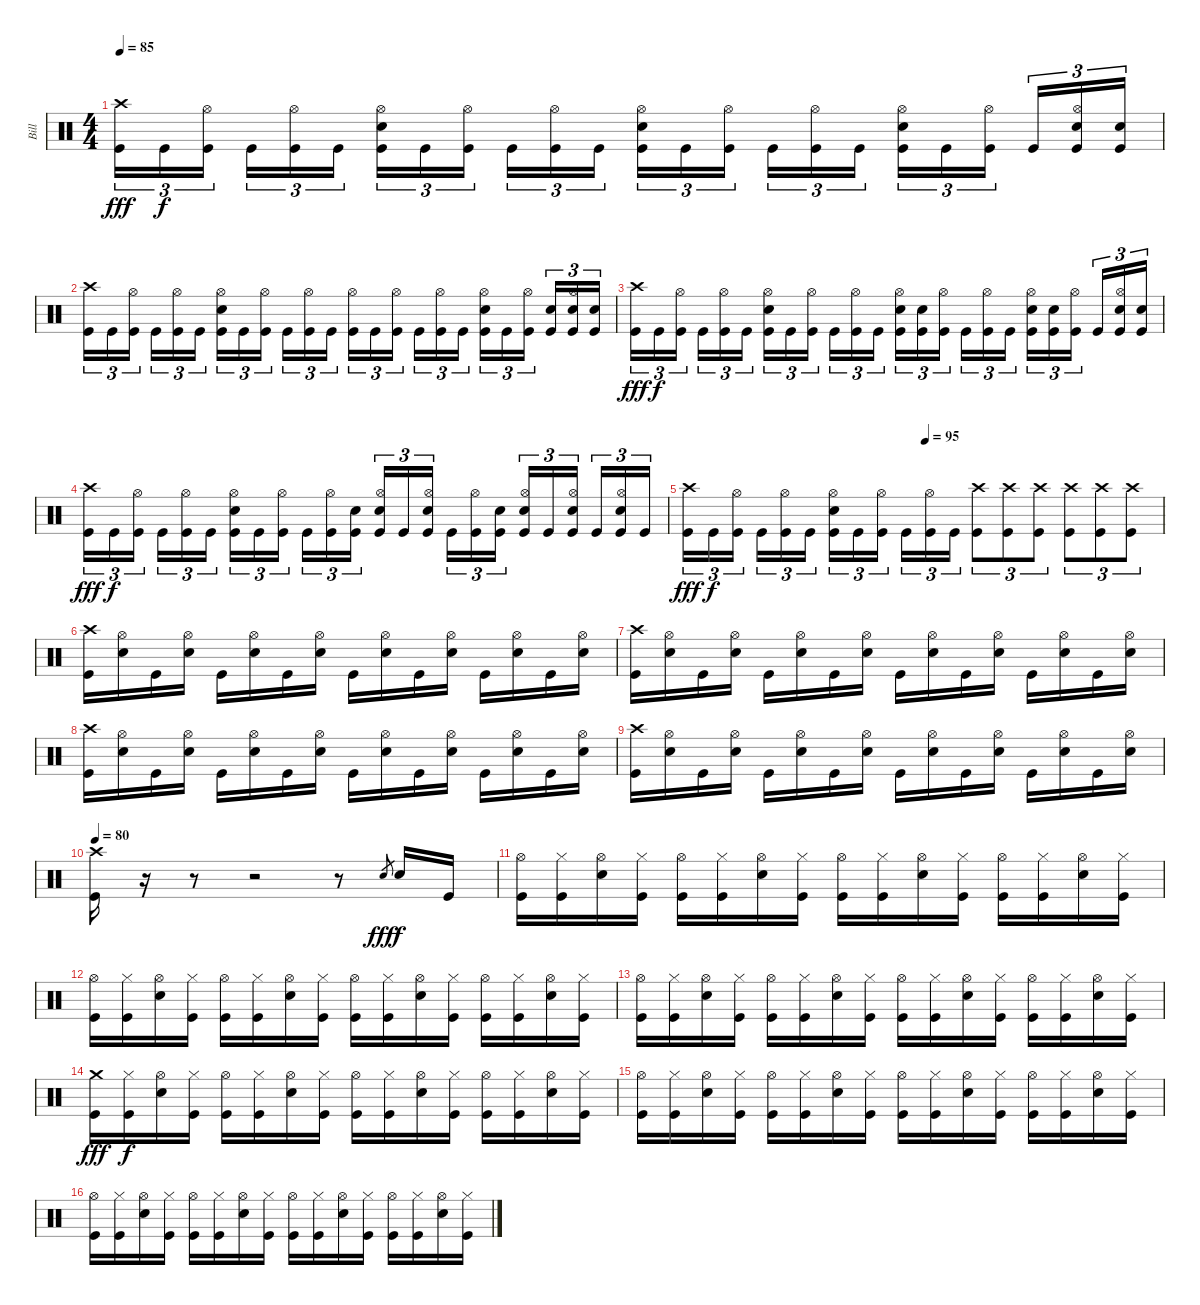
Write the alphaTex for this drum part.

\track ("Bill" "Bill") {instrument percussion}
\staff {score}
\articulation defaults
\ts (4 4)
\tempo 85
\clef neutral
\ks c
("Crash high (hit)" "Kick (hit)").16{tu (3 2) dy fff} "Kick (hit)".16{tu (3 2) dy f} ("Hi-Hat (open)" "Kick (hit)").16{tu (3 2)} "Kick (hit)".16{tu (3 2)} ("Hi-Hat (open)" "Kick (hit)").16{tu (3 2)} "Kick (hit)".16{tu (3 2)} ("Snare (hit) 2" "Hi-Hat (open)" "Kick (hit)").16{tu (3 2)} "Kick (hit)".16{tu (3 2)} ("Hi-Hat (open)" "Kick (hit)").16{tu (3 2)} "Kick (hit)".16{tu (3 2)} ("Hi-Hat (open)" "Kick (hit)").16{tu (3 2)} "Kick (hit)".16{tu (3 2)} ("Snare (hit) 2" "Hi-Hat (open)" "Kick (hit)").16{tu (3 2)} "Kick (hit)".16{tu (3 2)} ("Hi-Hat (open)" "Kick (hit)").16{tu (3 2)} "Kick (hit)".16{tu (3 2)} ("Hi-Hat (open)" "Kick (hit)").16{tu (3 2)} "Kick (hit)".16{tu (3 2)} ("Snare (hit) 2" "Hi-Hat (open)" "Kick (hit)").16{tu (3 2)} "Kick (hit)".16{tu (3 2)} ("Hi-Hat (open)" "Kick (hit)").16{tu (3 2)} "Kick (hit)".16{tu (3 2)} ("Snare (hit) 2" "Hi-Hat (open)" "Kick (hit)").16{tu (3 2)} ("Snare (hit) 2" "Kick (hit)").16{tu (3 2)} |
("Crash high (hit)" "Kick (hit)").16{tu (3 2)} "Kick (hit)".16{tu (3 2)} ("Hi-Hat (open)" "Kick (hit)").16{tu (3 2)} "Kick (hit)".16{tu (3 2)} ("Hi-Hat (open)" "Kick (hit)").16{tu (3 2)} "Kick (hit)".16{tu (3 2)} ("Snare (hit) 2" "Hi-Hat (open)" "Kick (hit)").16{tu (3 2)} "Kick (hit)".16{tu (3 2)} ("Hi-Hat (open)" "Kick (hit)").16{tu (3 2)} "Kick (hit)".16{tu (3 2)} ("Hi-Hat (open)" "Kick (hit)").16{tu (3 2)} "Kick (hit)".16{tu (3 2)} ("Hi-Hat (open)" "Kick (hit)").16{tu (3 2)} "Kick (hit)".16{tu (3 2)} ("Hi-Hat (open)" "Kick (hit)").16{tu (3 2)} "Kick (hit)".16{tu (3 2)} ("Hi-Hat (open)" "Kick (hit)").16{tu (3 2)} "Kick (hit)".16{tu (3 2)} ("Snare (hit) 2" "Hi-Hat (open)" "Kick (hit)").16{tu (3 2)} "Kick (hit)".16{tu (3 2)} ("Hi-Hat (open)" "Kick (hit)").16{tu (3 2)} ("Snare (hit) 2" "Kick (hit)").16{tu (3 2)} ("Snare (hit) 2" "Hi-Hat (open)" "Kick (hit)").16{tu (3 2)} ("Snare (hit) 2" "Kick (hit)").16{tu (3 2)} |
("Crash high (hit)" "Kick (hit)").16{tu (3 2) dy fff} "Kick (hit)".16{tu (3 2) dy f} ("Hi-Hat (open)" "Kick (hit)").16{tu (3 2)} "Kick (hit)".16{tu (3 2)} ("Hi-Hat (open)" "Kick (hit)").16{tu (3 2)} "Kick (hit)".16{tu (3 2)} ("Snare (hit) 2" "Hi-Hat (open)" "Kick (hit)").16{tu (3 2)} "Kick (hit)".16{tu (3 2)} ("Hi-Hat (open)" "Kick (hit)").16{tu (3 2)} "Kick (hit)".16{tu (3 2)} ("Hi-Hat (open)" "Kick (hit)").16{tu (3 2)} "Kick (hit)".16{tu (3 2)} ("Snare (hit) 2" "Hi-Hat (open)" "Kick (hit)").16{tu (3 2)} ("Snare (hit) 2" "Kick (hit)").16{tu (3 2)} ("Hi-Hat (open)" "Kick (hit)").16{tu (3 2)} "Kick (hit)".16{tu (3 2)} ("Hi-Hat (open)" "Kick (hit)").16{tu (3 2)} "Kick (hit)".16{tu (3 2)} ("Snare (hit) 2" "Hi-Hat (open)" "Kick (hit)").16{tu (3 2)} ("Snare (hit) 2" "Kick (hit)").16{tu (3 2)} ("Hi-Hat (open)" "Kick (hit)").16{tu (3 2)} "Kick (hit)".16{tu (3 2)} ("Snare (hit) 2" "Hi-Hat (open)" "Kick (hit)").16{tu (3 2)} ("Snare (hit) 2" "Kick (hit)").16{tu (3 2)} |
("Crash high (hit)" "Kick (hit)").16{tu (3 2) dy fff} "Kick (hit)".16{tu (3 2) dy f} ("Hi-Hat (open)" "Kick (hit)").16{tu (3 2)} "Kick (hit)".16{tu (3 2)} ("Hi-Hat (open)" "Kick (hit)").16{tu (3 2)} "Kick (hit)".16{tu (3 2)} ("Snare (hit) 2" "Hi-Hat (open)" "Kick (hit)").16{tu (3 2)} "Kick (hit)".16{tu (3 2)} ("Hi-Hat (open)" "Kick (hit)").16{tu (3 2)} "Kick (hit)".16{tu (3 2)} ("Hi-Hat (open)" "Kick (hit)").16{tu (3 2)} ("Snare (hit) 2" "Kick (hit)").16{tu (3 2)} ("Snare (hit) 2" "Hi-Hat (open)" "Kick (hit)").16{tu (3 2)} "Kick (hit)".16{tu (3 2)} ("Snare (hit) 2" "Hi-Hat (open)" "Kick (hit)").16{tu (3 2)} "Kick (hit)".16{tu (3 2)} ("Hi-Hat (open)" "Kick (hit)").16{tu (3 2)} ("Snare (hit) 2" "Kick (hit)").16{tu (3 2)} ("Snare (hit) 2" "Hi-Hat (open)" "Kick (hit)").16{tu (3 2)} "Kick (hit)".16{tu (3 2)} ("Snare (hit) 2" "Hi-Hat (open)" "Kick (hit)").16{tu (3 2)} "Kick (hit)".16{tu (3 2)} ("Snare (hit) 2" "Hi-Hat (open)" "Kick (hit)").16{tu (3 2)} "Kick (hit)".16{tu (3 2)} |
\tempo (95 0.5)
("Crash high (hit)" "Kick (hit)").16{tu (3 2) dy fff} "Kick (hit)".16{tu (3 2) dy f} ("Hi-Hat (open)" "Kick (hit)").16{tu (3 2)} "Kick (hit)".16{tu (3 2)} ("Hi-Hat (open)" "Kick (hit)").16{tu (3 2)} "Kick (hit)".16{tu (3 2)} ("Snare (hit) 2" "Hi-Hat (open)" "Kick (hit)").16{tu (3 2)} "Kick (hit)".16{tu (3 2)} ("Hi-Hat (open)" "Kick (hit)").16{tu (3 2)} "Kick (hit)".16{tu (3 2)} ("Hi-Hat (open)" "Kick (hit)").16{tu (3 2)} "Kick (hit)".16{tu (3 2)} ("Crash high (hit)" "Kick (hit)").8{tu (3 2)} ("Crash high (hit)" "Kick (hit)").8{tu (3 2)} ("Crash high (hit)" "Kick (hit)").8{tu (3 2)} ("Crash high (hit)" "Kick (hit)").8{tu (3 2)} ("Crash high (hit)" "Kick (hit)").8{tu (3 2)} ("Crash high (hit)" "Kick (hit)").8{tu (3 2)} |
("Crash high (hit)" "Kick (hit)").16 ("Hi-Hat (open)" "Snare (hit) 2").16 "Kick (hit)".16 ("Hi-Hat (open)" "Snare (hit) 2").16 "Kick (hit)".16 ("Hi-Hat (open)" "Snare (hit) 2").16 "Kick (hit)".16 ("Hi-Hat (open)" "Snare (hit) 2").16 "Kick (hit)".16 ("Hi-Hat (open)" "Snare (hit) 2").16 "Kick (hit)".16 ("Hi-Hat (open)" "Snare (hit) 2").16 "Kick (hit)".16 ("Hi-Hat (open)" "Snare (hit) 2").16 "Kick (hit)".16 ("Hi-Hat (open)" "Snare (hit) 2").16 |
("Crash high (hit)" "Kick (hit)").16 ("Hi-Hat (open)" "Snare (hit) 2").16 "Kick (hit)".16 ("Hi-Hat (open)" "Snare (hit) 2").16 "Kick (hit)".16 ("Hi-Hat (open)" "Snare (hit) 2").16 "Kick (hit)".16 ("Hi-Hat (open)" "Snare (hit) 2").16 "Kick (hit)".16 ("Hi-Hat (open)" "Snare (hit) 2").16 "Kick (hit)".16 ("Hi-Hat (open)" "Snare (hit) 2").16 "Kick (hit)".16 ("Hi-Hat (open)" "Snare (hit) 2").16 "Kick (hit)".16 ("Hi-Hat (open)" "Snare (hit) 2").16 |
("Crash high (hit)" "Kick (hit)").16 ("Hi-Hat (open)" "Snare (hit) 2").16 "Kick (hit)".16 ("Hi-Hat (open)" "Snare (hit) 2").16 "Kick (hit)".16 ("Hi-Hat (open)" "Snare (hit) 2").16 "Kick (hit)".16 ("Hi-Hat (open)" "Snare (hit) 2").16 "Kick (hit)".16 ("Hi-Hat (open)" "Snare (hit) 2").16 "Kick (hit)".16 ("Hi-Hat (open)" "Snare (hit) 2").16 "Kick (hit)".16 ("Hi-Hat (open)" "Snare (hit) 2").16 "Kick (hit)".16 ("Hi-Hat (open)" "Snare (hit) 2").16 |
("Crash high (hit)" "Kick (hit)").16 ("Hi-Hat (open)" "Snare (hit) 2").16 "Kick (hit)".16 ("Hi-Hat (open)" "Snare (hit) 2").16 "Kick (hit)".16 ("Hi-Hat (open)" "Snare (hit) 2").16 "Kick (hit)".16 ("Hi-Hat (open)" "Snare (hit) 2").16 "Kick (hit)".16 ("Hi-Hat (open)" "Snare (hit) 2").16 "Kick (hit)".16 ("Hi-Hat (open)" "Snare (hit) 2").16 "Kick (hit)".16 ("Hi-Hat (open)" "Snare (hit) 2").16 "Kick (hit)".16 ("Hi-Hat (open)" "Snare (hit) 2").16 |
\tempo 80
("Crash high (hit)" "Kick (hit)").16 r.16 r.8 r.2 r.8 "Snare (hit) 2".8{gr dy fff} "Snare (hit) 2".16{dy f} "Kick (hit)".16 |
("Hi-Hat (open)" "Kick (hit)").16 ("Hi-Hat (closed)" "Kick (hit)").16 ("Hi-Hat (open)" "Snare (hit) 2").16 ("Hi-Hat (closed)" "Kick (hit)").16 ("Hi-Hat (open)" "Kick (hit)").16 ("Hi-Hat (closed)" "Kick (hit)").16 ("Hi-Hat (open)" "Snare (hit) 2").16 ("Hi-Hat (closed)" "Kick (hit)").16 ("Hi-Hat (open)" "Kick (hit)").16 ("Hi-Hat (closed)" "Kick (hit)").16 ("Hi-Hat (open)" "Snare (hit) 2").16 ("Hi-Hat (closed)" "Kick (hit)").16 ("Hi-Hat (open)" "Kick (hit)").16 ("Hi-Hat (closed)" "Kick (hit)").16 ("Hi-Hat (open)" "Snare (hit) 2").16 ("Hi-Hat (closed)" "Kick (hit)").16 |
("Hi-Hat (open)" "Kick (hit)").16 ("Hi-Hat (closed)" "Kick (hit)").16 ("Hi-Hat (open)" "Snare (hit) 2").16 ("Hi-Hat (closed)" "Kick (hit)").16 ("Hi-Hat (open)" "Kick (hit)").16 ("Hi-Hat (closed)" "Kick (hit)").16 ("Hi-Hat (open)" "Snare (hit) 2").16 ("Hi-Hat (closed)" "Kick (hit)").16 ("Hi-Hat (open)" "Kick (hit)").16 ("Hi-Hat (closed)" "Kick (hit)").16 ("Hi-Hat (open)" "Snare (hit) 2").16 ("Hi-Hat (closed)" "Kick (hit)").16 ("Hi-Hat (open)" "Kick (hit)").16 ("Hi-Hat (closed)" "Kick (hit)").16 ("Hi-Hat (open)" "Snare (hit) 2").16 ("Hi-Hat (closed)" "Kick (hit)").16 |
("Hi-Hat (open)" "Kick (hit)").16 ("Hi-Hat (closed)" "Kick (hit)").16 ("Hi-Hat (open)" "Snare (hit) 2").16 ("Hi-Hat (closed)" "Kick (hit)").16 ("Hi-Hat (open)" "Kick (hit)").16 ("Hi-Hat (closed)" "Kick (hit)").16 ("Hi-Hat (open)" "Snare (hit) 2").16 ("Hi-Hat (closed)" "Kick (hit)").16 ("Hi-Hat (open)" "Kick (hit)").16 ("Hi-Hat (closed)" "Kick (hit)").16 ("Hi-Hat (open)" "Snare (hit) 2").16 ("Hi-Hat (closed)" "Kick (hit)").16 ("Hi-Hat (open)" "Kick (hit)").16 ("Hi-Hat (closed)" "Kick (hit)").16 ("Hi-Hat (open)" "Snare (hit) 2").16 ("Hi-Hat (closed)" "Kick (hit)").16 |
("Crash medium (hit)" "Kick (hit)").16{dy fff} ("Hi-Hat (closed)" "Kick (hit)").16{dy f} ("Hi-Hat (open)" "Snare (hit) 2").16 ("Hi-Hat (closed)" "Kick (hit)").16 ("Hi-Hat (open)" "Kick (hit)").16 ("Hi-Hat (closed)" "Kick (hit)").16 ("Hi-Hat (open)" "Snare (hit) 2").16 ("Hi-Hat (closed)" "Kick (hit)").16 ("Hi-Hat (open)" "Kick (hit)").16 ("Hi-Hat (closed)" "Kick (hit)").16 ("Hi-Hat (open)" "Snare (hit) 2").16 ("Hi-Hat (closed)" "Kick (hit)").16 ("Hi-Hat (open)" "Kick (hit)").16 ("Hi-Hat (closed)" "Kick (hit)").16 ("Hi-Hat (open)" "Snare (hit) 2").16 ("Hi-Hat (closed)" "Kick (hit)").16 |
("Hi-Hat (open)" "Kick (hit)").16 ("Hi-Hat (closed)" "Kick (hit)").16 ("Hi-Hat (open)" "Snare (hit) 2").16 ("Hi-Hat (closed)" "Kick (hit)").16 ("Hi-Hat (open)" "Kick (hit)").16 ("Hi-Hat (closed)" "Kick (hit)").16 ("Hi-Hat (open)" "Snare (hit) 2").16 ("Hi-Hat (closed)" "Kick (hit)").16 ("Hi-Hat (open)" "Kick (hit)").16 ("Hi-Hat (closed)" "Kick (hit)").16 ("Hi-Hat (open)" "Snare (hit) 2").16 ("Hi-Hat (closed)" "Kick (hit)").16 ("Hi-Hat (open)" "Kick (hit)").16 ("Hi-Hat (closed)" "Kick (hit)").16 ("Hi-Hat (open)" "Snare (hit) 2").16 ("Hi-Hat (closed)" "Kick (hit)").16 |
("Hi-Hat (open)" "Kick (hit)").16 ("Hi-Hat (closed)" "Kick (hit)").16 ("Hi-Hat (open)" "Snare (hit) 2").16 ("Hi-Hat (closed)" "Kick (hit)").16 ("Hi-Hat (open)" "Kick (hit)").16 ("Hi-Hat (closed)" "Kick (hit)").16 ("Hi-Hat (open)" "Snare (hit) 2").16 ("Hi-Hat (closed)" "Kick (hit)").16 ("Hi-Hat (open)" "Kick (hit)").16 ("Hi-Hat (closed)" "Kick (hit)").16 ("Hi-Hat (open)" "Snare (hit) 2").16 ("Hi-Hat (closed)" "Kick (hit)").16 ("Hi-Hat (open)" "Kick (hit)").16 ("Hi-Hat (closed)" "Kick (hit)").16 ("Hi-Hat (open)" "Snare (hit) 2").16 ("Hi-Hat (closed)" "Kick (hit)").16
